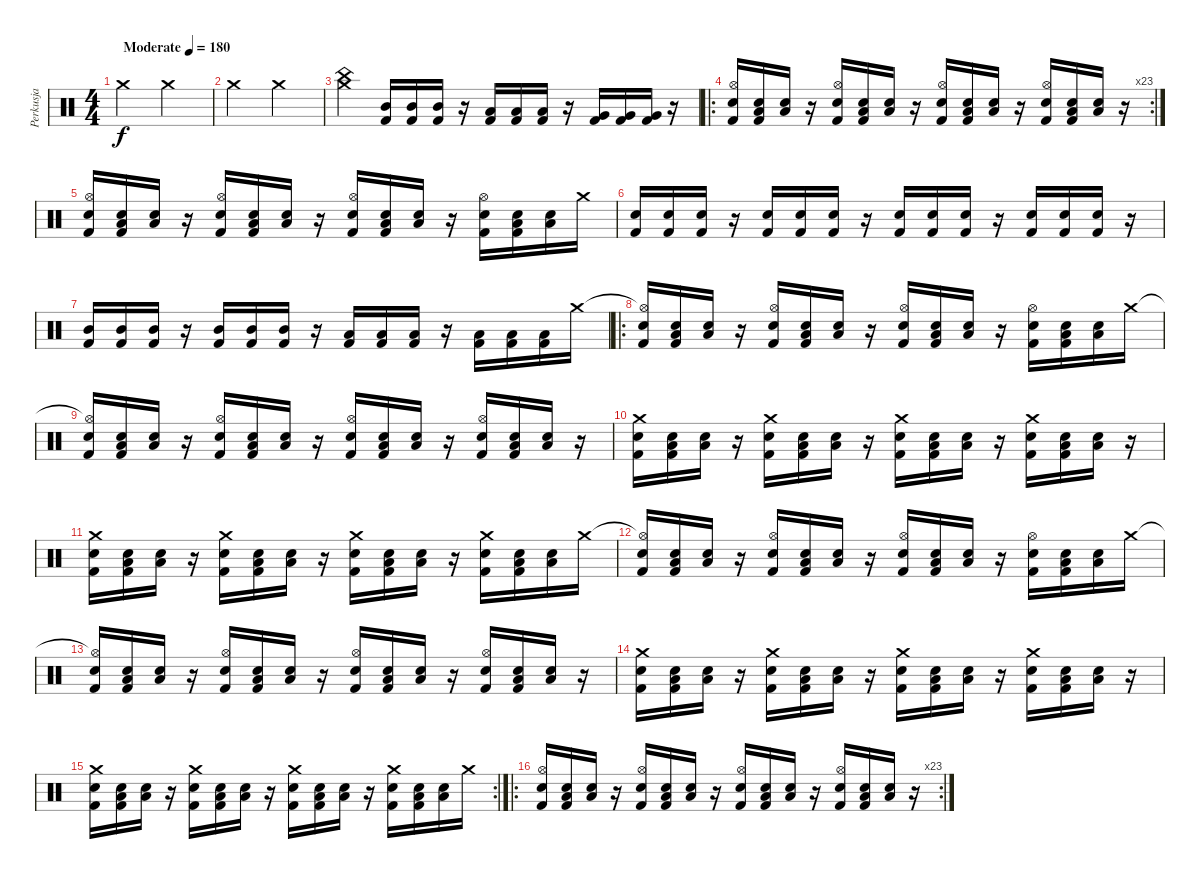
\track ("Perkusja" "Perkusja") {instrument percussion}
\staff {score}
\articulation defaults
\ts (4 4)
\tempo (180 "Moderate")
\clef neutral
\ks c "Crash medium (hit)".2{dy f} "Crash medium (hit)".2
|
"Crash medium (hit)".2 "Crash medium (hit)".2 |
("Crash medium (hit)" "China (hit)").4 ("Mid Tom (hit)" "Kick (hit) 2").16 ("Mid Tom (hit)" "Kick (hit) 2").16 ("Mid Tom (hit)" "Kick (hit) 2").16 r.16 ("Low Tom (hit)" "Kick (hit) 2").16 ("Low Tom (hit)" "Kick (hit) 2").16 ("Low Tom (hit)" "Kick (hit) 2").16 r.16 ("Very Low Tom (hit)" "Kick (hit) 2").16 ("Very Low Tom (hit)" "Kick (hit) 2").16 ("Very Low Tom (hit)" "Kick (hit) 2").16 r.16 |
\ro
\rc 23
("Hi-Hat (open)" "Snare (hit) 2" "Kick (hit) 2").16 ("Low Tom (hit)" "Snare (hit) 2" "Kick (hit) 2").16 ("Low Tom (hit)" "Snare (hit) 2").16 r.16 ("Hi-Hat (open)" "Snare (hit) 2" "Kick (hit) 2").16 ("Low Tom (hit)" "Snare (hit) 2" "Kick (hit) 2").16 ("Low Tom (hit)" "Snare (hit) 2").16 r.16 ("Hi-Hat (open)" "Snare (hit) 2" "Kick (hit) 2").16 ("Low Tom (hit)" "Snare (hit) 2" "Kick (hit) 2").16 ("Low Tom (hit)" "Snare (hit) 2").16 r.16 ("Hi-Hat (open)" "Snare (hit) 2" "Kick (hit) 2").16 ("Low Tom (hit)" "Snare (hit) 2" "Kick (hit) 2").16 ("Low Tom (hit)" "Snare (hit) 2").16 r.16 |
("Hi-Hat (open)" "Snare (hit) 2" "Kick (hit) 2").16 ("Low Tom (hit)" "Snare (hit) 2" "Kick (hit) 2").16 ("Low Tom (hit)" "Snare (hit) 2").16 r.16 ("Hi-Hat (open)" "Snare (hit) 2" "Kick (hit) 2").16 ("Low Tom (hit)" "Snare (hit) 2" "Kick (hit) 2").16 ("Low Tom (hit)" "Snare (hit) 2").16 r.16 ("Hi-Hat (open)" "Snare (hit) 2" "Kick (hit) 2").16 ("Low Tom (hit)" "Snare (hit) 2" "Kick (hit) 2").16 ("Low Tom (hit)" "Snare (hit) 2").16 r.16 ("Hi-Hat (open)" "Snare (hit) 2" "Kick (hit) 2").16 ("Low Tom (hit)" "Snare (hit) 2" "Kick (hit) 2").16 ("Low Tom (hit)" "Snare (hit) 2").16 "Crash medium (hit)".16 |
("Snare (hit) 2" "Kick (hit) 2").16 ("Snare (hit) 2" "Kick (hit) 2").16 ("Snare (hit) 2" "Kick (hit) 2").16 r.16 ("Snare (hit) 2" "Kick (hit) 2").16 ("Snare (hit) 2" "Kick (hit) 2").16 ("Snare (hit) 2" "Kick (hit) 2").16 r.16 ("Snare (hit) 2" "Kick (hit) 2").16 ("Snare (hit) 2" "Kick (hit) 2").16 ("Snare (hit) 2" "Kick (hit) 2").16 r.16 ("Snare (hit) 2" "Kick (hit) 2").16 ("Snare (hit) 2" "Kick (hit) 2").16 ("Snare (hit) 2" "Kick (hit) 2").16 r.16 |
("Mid Tom (hit)" "Kick (hit) 2").16 ("Mid Tom (hit)" "Kick (hit) 2").16 ("Mid Tom (hit)" "Kick (hit) 2").16 r.16 ("Mid Tom (hit)" "Kick (hit) 2").16 ("Mid Tom (hit)" "Kick (hit) 2").16 ("Mid Tom (hit)" "Kick (hit) 2").16 r.16 ("Low Tom (hit)" "Kick (hit) 2").16 ("Low Tom (hit)" "Kick (hit) 2").16 ("Low Tom (hit)" "Kick (hit) 2").16 r.16 ("Low Tom (hit)" "Kick (hit) 2").16 ("Low Tom (hit)" "Kick (hit) 2").16 ("Low Tom (hit)" "Kick (hit) 2").16 "Crash medium (hit)".16 |
\ro
("Hi-Hat (open)"{t} "Snare (hit) 2" "Kick (hit) 2").16 ("Low Tom (hit)" "Snare (hit) 2" "Kick (hit) 2").16 ("Low Tom (hit)" "Snare (hit) 2").16 r.16 ("Hi-Hat (open)" "Snare (hit) 2" "Kick (hit) 2").16 ("Low Tom (hit)" "Snare (hit) 2" "Kick (hit) 2").16 ("Low Tom (hit)" "Snare (hit) 2").16 r.16 ("Hi-Hat (open)" "Snare (hit) 2" "Kick (hit) 2").16 ("Low Tom (hit)" "Snare (hit) 2" "Kick (hit) 2").16 ("Low Tom (hit)" "Snare (hit) 2").16 r.16 ("Hi-Hat (open)" "Snare (hit) 2" "Kick (hit) 2").16 ("Low Tom (hit)" "Snare (hit) 2" "Kick (hit) 2").16 ("Low Tom (hit)" "Snare (hit) 2").16 "Crash medium (hit)".16 |
("Hi-Hat (open)"{t} "Snare (hit) 2" "Kick (hit) 2").16 ("Low Tom (hit)" "Snare (hit) 2" "Kick (hit) 2").16 ("Low Tom (hit)" "Snare (hit) 2").16 r.16 ("Hi-Hat (open)" "Snare (hit) 2" "Kick (hit) 2").16 ("Low Tom (hit)" "Snare (hit) 2" "Kick (hit) 2").16 ("Low Tom (hit)" "Snare (hit) 2").16 r.16 ("Hi-Hat (open)" "Snare (hit) 2" "Kick (hit) 2").16 ("Low Tom (hit)" "Snare (hit) 2" "Kick (hit) 2").16 ("Low Tom (hit)" "Snare (hit) 2").16 r.16 ("Hi-Hat (open)" "Snare (hit) 2" "Kick (hit) 2").16 ("Low Tom (hit)" "Snare (hit) 2" "Kick (hit) 2").16 ("Low Tom (hit)" "Snare (hit) 2").16 r.16 |
("Crash medium (hit)" "Snare (hit) 2" "Kick (hit) 2").16 ("Low Tom (hit)" "Snare (hit) 2" "Kick (hit) 2").16 ("Low Tom (hit)" "Snare (hit) 2").16 r.16 ("Crash medium (hit)" "Snare (hit) 2" "Kick (hit) 2").16 ("Low Tom (hit)" "Snare (hit) 2" "Kick (hit) 2").16 ("Low Tom (hit)" "Snare (hit) 2").16 r.16 ("Crash medium (hit)" "Snare (hit) 2" "Kick (hit) 2").16 ("Low Tom (hit)" "Snare (hit) 2" "Kick (hit) 2").16 ("Low Tom (hit)" "Snare (hit) 2").16 r.16 ("Crash medium (hit)" "Snare (hit) 2" "Kick (hit) 2").16 ("Low Tom (hit)" "Snare (hit) 2" "Kick (hit) 2").16 ("Low Tom (hit)" "Snare (hit) 2").16 r.16 |
("Crash medium (hit)" "Snare (hit) 2" "Kick (hit) 2").16 ("Low Tom (hit)" "Snare (hit) 2" "Kick (hit) 2").16 ("Low Tom (hit)" "Snare (hit) 2").16 r.16 ("Crash medium (hit)" "Snare (hit) 2" "Kick (hit) 2").16 ("Low Tom (hit)" "Snare (hit) 2" "Kick (hit) 2").16 ("Low Tom (hit)" "Snare (hit) 2").16 r.16 ("Crash medium (hit)" "Snare (hit) 2" "Kick (hit) 2").16 ("Low Tom (hit)" "Snare (hit) 2" "Kick (hit) 2").16 ("Low Tom (hit)" "Snare (hit) 2").16 r.16 ("Crash medium (hit)" "Snare (hit) 2" "Kick (hit) 2").16 ("Low Tom (hit)" "Snare (hit) 2" "Kick (hit) 2").16 ("Low Tom (hit)" "Snare (hit) 2").16 "Crash medium (hit)".16 |
("Hi-Hat (open)"{t} "Snare (hit) 2" "Kick (hit) 2").16 ("Low Tom (hit)" "Snare (hit) 2" "Kick (hit) 2").16 ("Low Tom (hit)" "Snare (hit) 2").16 r.16 ("Hi-Hat (open)" "Snare (hit) 2" "Kick (hit) 2").16 ("Low Tom (hit)" "Snare (hit) 2" "Kick (hit) 2").16 ("Low Tom (hit)" "Snare (hit) 2").16 r.16 ("Hi-Hat (open)" "Snare (hit) 2" "Kick (hit) 2").16 ("Low Tom (hit)" "Snare (hit) 2" "Kick (hit) 2").16 ("Low Tom (hit)" "Snare (hit) 2").16 r.16 ("Hi-Hat (open)" "Snare (hit) 2" "Kick (hit) 2").16 ("Low Tom (hit)" "Snare (hit) 2" "Kick (hit) 2").16 ("Low Tom (hit)" "Snare (hit) 2").16 "Crash medium (hit)".16 |
("Hi-Hat (open)"{t} "Snare (hit) 2" "Kick (hit) 2").16 ("Low Tom (hit)" "Snare (hit) 2" "Kick (hit) 2").16 ("Low Tom (hit)" "Snare (hit) 2").16 r.16 ("Hi-Hat (open)" "Snare (hit) 2" "Kick (hit) 2").16 ("Low Tom (hit)" "Snare (hit) 2" "Kick (hit) 2").16 ("Low Tom (hit)" "Snare (hit) 2").16 r.16 ("Hi-Hat (open)" "Snare (hit) 2" "Kick (hit) 2").16 ("Low Tom (hit)" "Snare (hit) 2" "Kick (hit) 2").16 ("Low Tom (hit)" "Snare (hit) 2").16 r.16 ("Hi-Hat (open)" "Snare (hit) 2" "Kick (hit) 2").16 ("Low Tom (hit)" "Snare (hit) 2" "Kick (hit) 2").16 ("Low Tom (hit)" "Snare (hit) 2").16 r.16 |
("Crash medium (hit)" "Snare (hit) 2" "Kick (hit) 2").16 ("Low Tom (hit)" "Snare (hit) 2" "Kick (hit) 2").16 ("Low Tom (hit)" "Snare (hit) 2").16 r.16 ("Crash medium (hit)" "Snare (hit) 2" "Kick (hit) 2").16 ("Low Tom (hit)" "Snare (hit) 2" "Kick (hit) 2").16 ("Low Tom (hit)" "Snare (hit) 2").16 r.16 ("Crash medium (hit)" "Snare (hit) 2" "Kick (hit) 2").16 ("Low Tom (hit)" "Snare (hit) 2" "Kick (hit) 2").16 ("Low Tom (hit)" "Snare (hit) 2").16 r.16 ("Crash medium (hit)" "Snare (hit) 2" "Kick (hit) 2").16 ("Low Tom (hit)" "Snare (hit) 2" "Kick (hit) 2").16 ("Low Tom (hit)" "Snare (hit) 2").16 r.16 |
\rc 2
("Crash medium (hit)" "Snare (hit) 2" "Kick (hit) 2").16 ("Low Tom (hit)" "Snare (hit) 2" "Kick (hit) 2").16 ("Low Tom (hit)" "Snare (hit) 2").16 r.16 ("Crash medium (hit)" "Snare (hit) 2" "Kick (hit) 2").16 ("Low Tom (hit)" "Snare (hit) 2" "Kick (hit) 2").16 ("Low Tom (hit)" "Snare (hit) 2").16 r.16 ("Crash medium (hit)" "Snare (hit) 2" "Kick (hit) 2").16 ("Low Tom (hit)" "Snare (hit) 2" "Kick (hit) 2").16 ("Low Tom (hit)" "Snare (hit) 2").16 r.16 ("Crash medium (hit)" "Snare (hit) 2" "Kick (hit) 2").16 ("Low Tom (hit)" "Snare (hit) 2" "Kick (hit) 2").16 ("Low Tom (hit)" "Snare (hit) 2").16 "Crash medium (hit)".16 |
\ro
\rc 23
("Hi-Hat (open)" "Snare (hit) 2" "Kick (hit) 2").16 ("Low Tom (hit)" "Snare (hit) 2" "Kick (hit) 2").16 ("Low Tom (hit)" "Snare (hit) 2").16 r.16 ("Hi-Hat (open)" "Snare (hit) 2" "Kick (hit) 2").16 ("Low Tom (hit)" "Snare (hit) 2" "Kick (hit) 2").16 ("Low Tom (hit)" "Snare (hit) 2").16 r.16 ("Hi-Hat (open)" "Snare (hit) 2" "Kick (hit) 2").16 ("Low Tom (hit)" "Snare (hit) 2" "Kick (hit) 2").16 ("Low Tom (hit)" "Snare (hit) 2").16 r.16 ("Hi-Hat (open)" "Snare (hit) 2" "Kick (hit) 2").16 ("Low Tom (hit)" "Snare (hit) 2" "Kick (hit) 2").16 ("Low Tom (hit)" "Snare (hit) 2").16 r.16
